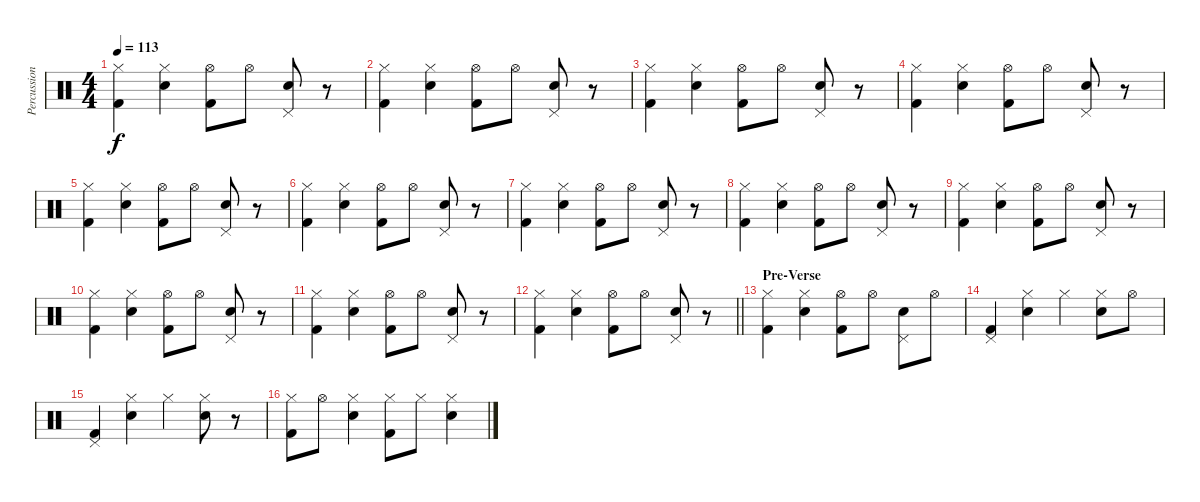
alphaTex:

\track ("Percussion" "Percussion") {instrument percussion bank 3}
\staff {score}
\articulation defaults
\ts (4 4)
\tempo 113
\clef neutral
\ks c
("Hi-Hat (closed)" "Kick (hit) 2").4{dy f} ("Hi-Hat (closed)" "Snare (hit) 2").4 ("Hi-Hat (open)" "Kick (hit) 2").8 "Hi-Hat (open)".8 ("Pedal Hi-Hat (hit)" "Snare (hit) 2").8 r.8 |
("Hi-Hat (closed)" "Kick (hit) 2").4 ("Hi-Hat (closed)" "Snare (hit) 2").4 ("Hi-Hat (open)" "Kick (hit) 2").8 "Hi-Hat (open)".8 ("Pedal Hi-Hat (hit)" "Snare (hit) 2").8 r.8 |
("Hi-Hat (closed)" "Kick (hit) 2").4 ("Hi-Hat (closed)" "Snare (hit) 2").4 ("Hi-Hat (open)" "Kick (hit) 2").8 "Hi-Hat (open)".8 ("Pedal Hi-Hat (hit)" "Snare (hit) 2").8 r.8 |
("Hi-Hat (closed)" "Kick (hit) 2").4 ("Hi-Hat (closed)" "Snare (hit) 2").4 ("Hi-Hat (open)" "Kick (hit) 2").8 "Hi-Hat (open)".8 ("Pedal Hi-Hat (hit)" "Snare (hit) 2").8 r.8 |
("Hi-Hat (closed)" "Kick (hit) 2").4 ("Hi-Hat (closed)" "Snare (hit) 2").4 ("Hi-Hat (open)" "Kick (hit) 2").8 "Hi-Hat (open)".8 ("Pedal Hi-Hat (hit)" "Snare (hit) 2").8 r.8 |
("Hi-Hat (closed)" "Kick (hit) 2").4 ("Hi-Hat (closed)" "Snare (hit) 2").4 ("Hi-Hat (open)" "Kick (hit) 2").8 "Hi-Hat (open)".8 ("Pedal Hi-Hat (hit)" "Snare (hit) 2").8 r.8 |
("Hi-Hat (closed)" "Kick (hit) 2").4 ("Hi-Hat (closed)" "Snare (hit) 2").4 ("Hi-Hat (open)" "Kick (hit) 2").8 "Hi-Hat (open)".8 ("Pedal Hi-Hat (hit)" "Snare (hit) 2").8 r.8 |
("Hi-Hat (closed)" "Kick (hit) 2").4 ("Hi-Hat (closed)" "Snare (hit) 2").4 ("Hi-Hat (open)" "Kick (hit) 2").8 "Hi-Hat (open)".8 ("Pedal Hi-Hat (hit)" "Snare (hit) 2").8 r.8 |
("Hi-Hat (closed)" "Kick (hit) 2").4 ("Hi-Hat (closed)" "Snare (hit) 2").4 ("Hi-Hat (open)" "Kick (hit) 2").8 "Hi-Hat (open)".8 ("Pedal Hi-Hat (hit)" "Snare (hit) 2").8 r.8 |
("Hi-Hat (closed)" "Kick (hit) 2").4 ("Hi-Hat (closed)" "Snare (hit) 2").4 ("Hi-Hat (open)" "Kick (hit) 2").8 "Hi-Hat (open)".8 ("Pedal Hi-Hat (hit)" "Snare (hit) 2").8 r.8 |
("Hi-Hat (closed)" "Kick (hit) 2").4 ("Hi-Hat (closed)" "Snare (hit) 2").4 ("Hi-Hat (open)" "Kick (hit) 2").8 "Hi-Hat (open)".8 ("Pedal Hi-Hat (hit)" "Snare (hit) 2").8 r.8 |
\barLineRight lightlight
("Hi-Hat (closed)" "Kick (hit) 2").4 ("Hi-Hat (closed)" "Snare (hit) 2").4 ("Hi-Hat (open)" "Kick (hit) 2").8 "Hi-Hat (open)".8 ("Pedal Hi-Hat (hit)" "Snare (hit) 2").8 r.8 |
\section ("" "Pre-Verse")
("Hi-Hat (closed)" "Kick (hit) 2").4 ("Hi-Hat (closed)" "Snare (hit) 2").4 ("Hi-Hat (open)" "Kick (hit) 2").8 "Hi-Hat (open)".8 ("Pedal Hi-Hat (hit)" "Snare (hit) 2").8 "Hi-Hat (open)".8 |
("Pedal Hi-Hat (hit)" "Kick (hit) 2").4 ("Hi-Hat (closed)" "Snare (hit) 2").4 "Hi-Hat (closed)".4 ("Hi-Hat (closed)" "Snare (hit) 2").8 "Hi-Hat (open)".8 |
("Pedal Hi-Hat (hit)" "Kick (hit) 2").4 ("Hi-Hat (closed)" "Snare (hit) 2").4 "Hi-Hat (closed)".4 ("Hi-Hat (closed)" "Snare (hit) 2").8 r.8 |
("Hi-Hat (closed)" "Kick (hit) 2").8 "Hi-Hat (open)".8 ("Hi-Hat (closed)" "Snare (hit) 2").4 ("Hi-Hat (closed)" "Kick (hit) 2").8 "Hi-Hat (closed)".8 ("Hi-Hat (closed)" "Snare (hit) 2").4
